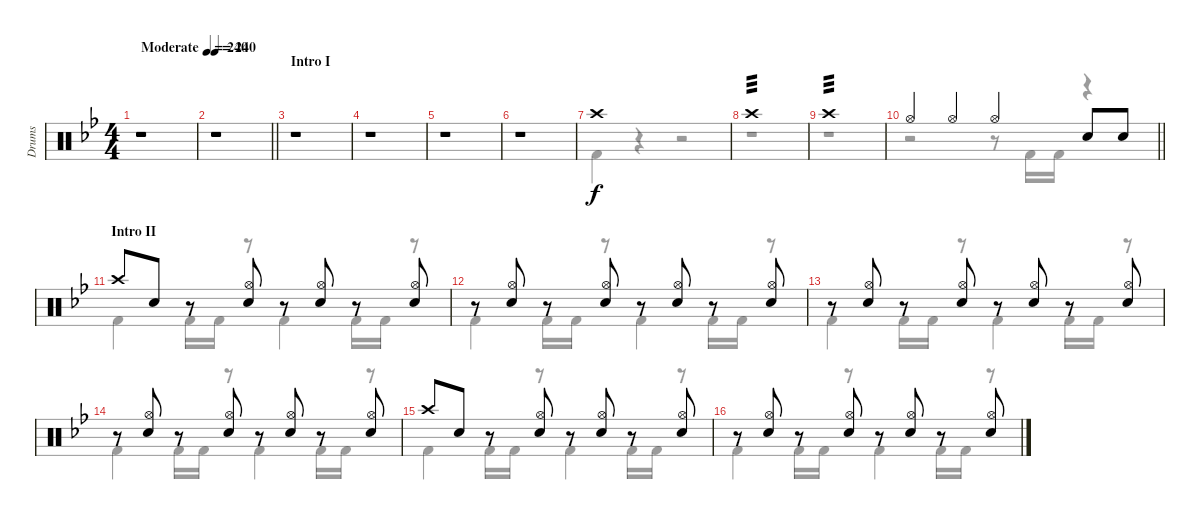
\track ("Drums" "Drums") {instrument percussion}
\staff {score}
\articulation defaults
\voice
\ts (4 4)
\tempo (240 "Moderate")
\tempo 200
\tempo (240 "Moderate")
\clef neutral
\ks bb
r.1{dy f} |
\tempo 240
\barLineRight lightlight
r.1 |
\section ("" "Intro I")
r.1 |
r.1 |
r.1 |
r.1 |
"Crash high (hit)".1 |
"Crash high (hit)".1{tp 3} |
"Crash high (hit)".1{tp 3} |
\barLineRight lightlight "Hi-Hat (open)".4 "Hi-Hat (open)".4 "Hi-Hat (open)".4 "Snare (hit) 2".8 "Snare (hit) 2".8
|
\section ("" "Intro II")
"Crash high (hit)".8 "Snare (hit) 2".8 r.8 ("Hi-Hat (open)" "Snare (hit) 2").8 r.8 ("Hi-Hat (open)" "Snare (hit) 2").8 r.8 ("Hi-Hat (open)" "Snare (hit) 2").8 |
r.8 ("Hi-Hat (open)" "Snare (hit) 2").8 r.8 ("Hi-Hat (open)" "Snare (hit) 2").8 r.8 ("Hi-Hat (open)" "Snare (hit) 2").8 r.8 ("Hi-Hat (open)" "Snare (hit) 2").8 |
r.8 ("Hi-Hat (open)" "Snare (hit) 2").8 r.8 ("Hi-Hat (open)" "Snare (hit) 2").8 r.8 ("Hi-Hat (open)" "Snare (hit) 2").8 r.8 ("Hi-Hat (open)" "Snare (hit) 2").8 |
r.8 ("Hi-Hat (open)" "Snare (hit) 2").8 r.8 ("Hi-Hat (open)" "Snare (hit) 2").8 r.8 ("Hi-Hat (open)" "Snare (hit) 2").8 r.8 ("Hi-Hat (open)" "Snare (hit) 2").8 |
"Crash high (hit)".8 "Snare (hit) 2".8 r.8 ("Hi-Hat (open)" "Snare (hit) 2").8 r.8 ("Hi-Hat (open)" "Snare (hit) 2").8 r.8 ("Hi-Hat (open)" "Snare (hit) 2").8 |
r.8 ("Hi-Hat (open)" "Snare (hit) 2").8 r.8 ("Hi-Hat (open)" "Snare (hit) 2").8 r.8 ("Hi-Hat (open)" "Snare (hit) 2").8 r.8 ("Hi-Hat (open)" "Snare (hit) 2").8
\voice
\clef neutral
\ottava regular
\simile none
\ks bb
r.1{dy f} |
\barLineRight lightlight
r.1 |
r.1 |
r.1 |
r.1 |
r.1 |
"Kick (hit) 2".4 r.4 r.2 |
r.1 |
r.1 |
\barLineRight lightlight
r.2 r.8 "Kick (hit) 2".16 "Kick (hit) 2".16 r.4 |
"Kick (hit) 2".4 "Kick (hit) 2".16 "Kick (hit) 2".16 r.8 "Kick (hit) 2".4 "Kick (hit) 2".16 "Kick (hit) 2".16 r.8 |
"Kick (hit) 2".4 "Kick (hit) 2".16 "Kick (hit) 2".16 r.8 "Kick (hit) 2".4 "Kick (hit) 2".16 "Kick (hit) 2".16 r.8 |
"Kick (hit) 2".4 "Kick (hit) 2".16 "Kick (hit) 2".16 r.8 "Kick (hit) 2".4 "Kick (hit) 2".16 "Kick (hit) 2".16 r.8 |
"Kick (hit) 2".4 "Kick (hit) 2".16 "Kick (hit) 2".16 r.8 "Kick (hit) 2".4 "Kick (hit) 2".16 "Kick (hit) 2".16 r.8 |
"Kick (hit) 2".4 "Kick (hit) 2".16 "Kick (hit) 2".16 r.8 "Kick (hit) 2".4 "Kick (hit) 2".16 "Kick (hit) 2".16 r.8 |
"Kick (hit) 2".4 "Kick (hit) 2".16 "Kick (hit) 2".16 r.8 "Kick (hit) 2".4 "Kick (hit) 2".16 "Kick (hit) 2".16 r.8
